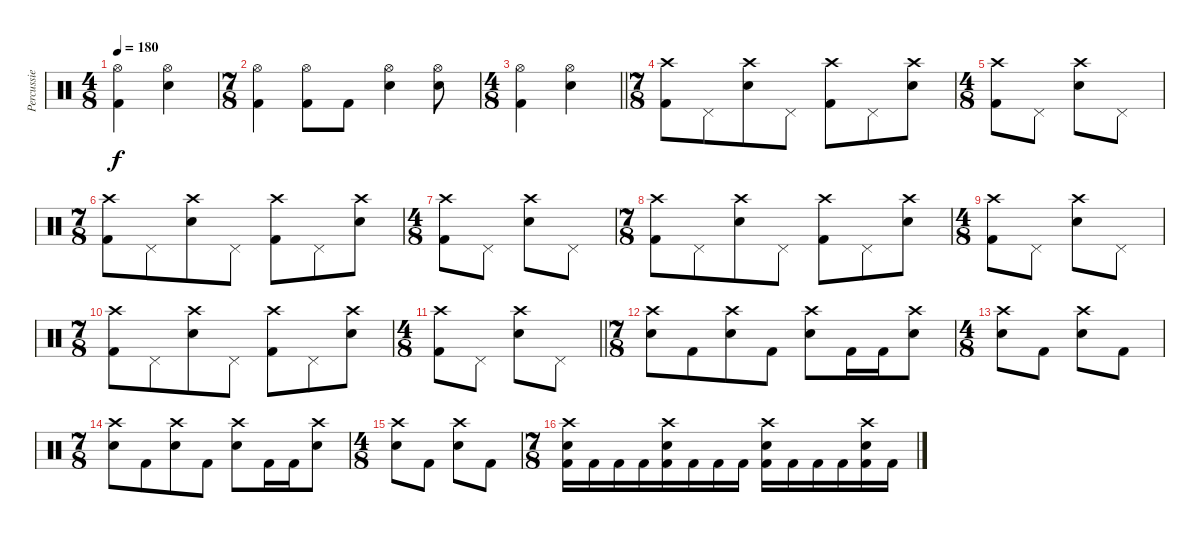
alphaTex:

\track ("Percussie" "Percussie") {instrument percussion}
\staff {score}
\articulation defaults
\ts (4 8)
\tempo 180
\clef neutral
\ks c
("Hi-Hat (open)" "Kick (hit) 2").4{dy f} ("Hi-Hat (open)" "Snare (hit) 2").4 |
\ts (7 8)
("Hi-Hat (open)" "Kick (hit) 2").4 ("Hi-Hat (open)" "Kick (hit) 2").8 "Kick (hit) 2".8 ("Hi-Hat (open)" "Snare (hit) 2").4 ("Hi-Hat (open)" "Snare (hit) 2").8 |
\ts (4 8)
\barLineRight lightlight
("Hi-Hat (open)" "Kick (hit) 2").4 ("Hi-Hat (open)" "Snare (hit) 2").4 |
\ts (7 8)
("Crash high (hit)" "Kick (hit) 2").8 "Pedal Hi-Hat (hit)".8 ("Crash high (hit)" "Snare (hit) 2").8 "Pedal Hi-Hat (hit)".8 ("Crash high (hit)" "Kick (hit) 2").8 "Pedal Hi-Hat (hit)".8 ("Crash high (hit)" "Snare (hit) 2").8 |
\ts (4 8)
("Crash high (hit)" "Kick (hit) 2").8 "Pedal Hi-Hat (hit)".8 ("Crash high (hit)" "Snare (hit) 2").8 "Pedal Hi-Hat (hit)".8 |
\ts (7 8)
("Crash high (hit)" "Kick (hit) 2").8 "Pedal Hi-Hat (hit)".8 ("Crash high (hit)" "Snare (hit) 2").8 "Pedal Hi-Hat (hit)".8 ("Crash high (hit)" "Kick (hit) 2").8 "Pedal Hi-Hat (hit)".8 ("Crash high (hit)" "Snare (hit) 2").8 |
\ts (4 8)
("Crash high (hit)" "Kick (hit) 2").8 "Pedal Hi-Hat (hit)".8 ("Crash high (hit)" "Snare (hit) 2").8 "Pedal Hi-Hat (hit)".8 |
\ts (7 8)
("Crash high (hit)" "Kick (hit) 2").8 "Pedal Hi-Hat (hit)".8 ("Crash high (hit)" "Snare (hit) 2").8 "Pedal Hi-Hat (hit)".8 ("Crash high (hit)" "Kick (hit) 2").8 "Pedal Hi-Hat (hit)".8 ("Crash high (hit)" "Snare (hit) 2").8 |
\ts (4 8)
("Crash high (hit)" "Kick (hit) 2").8 "Pedal Hi-Hat (hit)".8 ("Crash high (hit)" "Snare (hit) 2").8 "Pedal Hi-Hat (hit)".8 |
\ts (7 8)
("Crash high (hit)" "Kick (hit) 2").8 "Pedal Hi-Hat (hit)".8 ("Crash high (hit)" "Snare (hit) 2").8 "Pedal Hi-Hat (hit)".8 ("Crash high (hit)" "Kick (hit) 2").8 "Pedal Hi-Hat (hit)".8 ("Crash high (hit)" "Snare (hit) 2").8 |
\ts (4 8)
\barLineRight lightlight
("Crash high (hit)" "Kick (hit) 2").8 "Pedal Hi-Hat (hit)".8 ("Crash high (hit)" "Snare (hit) 2").8 "Pedal Hi-Hat (hit)".8 |
\ts (7 8)
("Crash high (hit)" "Snare (hit) 2").8 "Kick (hit) 2".8 ("Crash high (hit)" "Snare (hit) 2").8 "Kick (hit) 2".8 ("Crash high (hit)" "Snare (hit) 2").8 "Kick (hit) 2".16 "Kick (hit) 2".16 ("Crash high (hit)" "Snare (hit) 2").8 |
\ts (4 8)
("Crash high (hit)" "Snare (hit) 2").8 "Kick (hit) 2".8 ("Crash high (hit)" "Snare (hit) 2").8 "Kick (hit) 2".8 |
\ts (7 8)
("Crash high (hit)" "Snare (hit) 2").8 "Kick (hit) 2".8 ("Crash high (hit)" "Snare (hit) 2").8 "Kick (hit) 2".8 ("Crash high (hit)" "Snare (hit) 2").8 "Kick (hit) 2".16 "Kick (hit) 2".16 ("Crash high (hit)" "Snare (hit) 2").8 |
\ts (4 8)
("Crash high (hit)" "Snare (hit) 2").8 "Kick (hit) 2".8 ("Crash high (hit)" "Snare (hit) 2").8 "Kick (hit) 2".8 |
\ts (7 8)
("Crash high (hit)" "Snare (hit) 2" "Kick (hit) 2").16 "Kick (hit) 2".16 "Kick (hit) 2".16 "Kick (hit) 2".16 ("Crash high (hit)" "Snare (hit) 2" "Kick (hit) 2").16 "Kick (hit) 2".16 "Kick (hit) 2".16 "Kick (hit) 2".16 ("Crash high (hit)" "Snare (hit) 2" "Kick (hit) 2").16 "Kick (hit) 2".16 "Kick (hit) 2".16 "Kick (hit) 2".16 ("Crash high (hit)" "Snare (hit) 2" "Kick (hit) 2").16 "Kick (hit) 2".16
